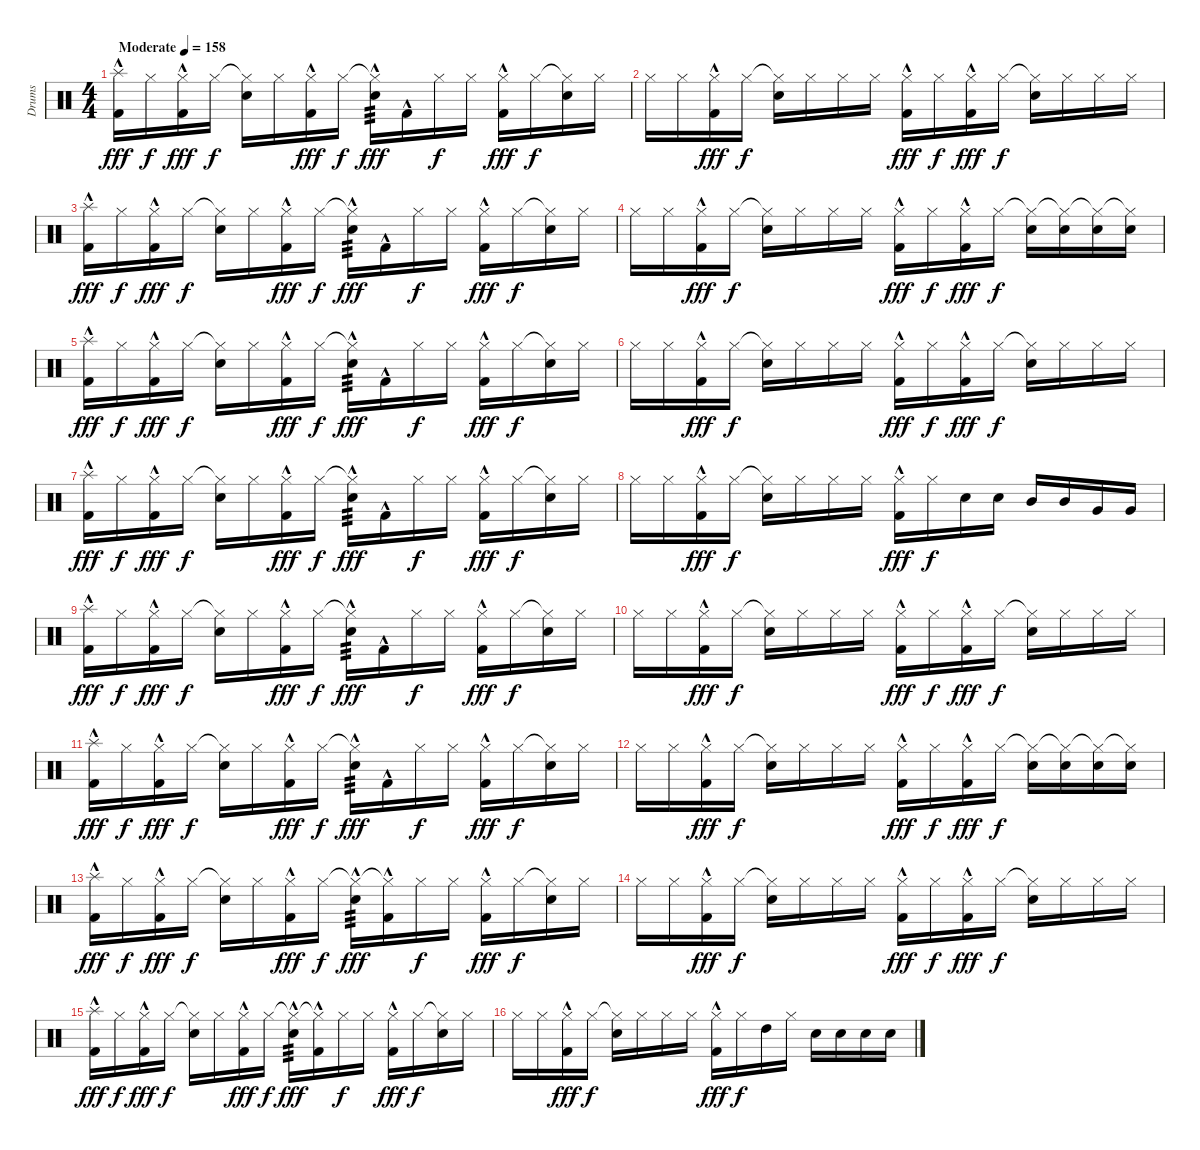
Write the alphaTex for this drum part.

\track ("Drums" "Drums") {instrument percussion}
\staff {score}
\articulation defaults
\ts (4 4)
\tempo (158 "Moderate")
\clef neutral
\ks c
("Splash (hit)" "Kick (hit) 2"{hac}).16{dy fff} "Hi-Hat (closed)".16{dy f} ("Hi-Hat (closed)" "Kick (hit) 2"{hac}).16{dy fff} "Hi-Hat (closed)".16{dy f} ("Hi-Hat (closed)"{t} "Electric Snare (hit)").16 "Hi-Hat (closed)".16 ("Hi-Hat (closed)" "Kick (hit) 2"{hac}).16{dy fff} "Hi-Hat (closed)".16{dy f} ("Hi-Hat (closed)"{t} "Electric Snare (hit)"{hac}).16{tp 3 dy fff} "Kick (hit) 2"{hac}.16 "Hi-Hat (closed)".16{dy f} "Hi-Hat (closed)".16 ("Hi-Hat (closed)" "Kick (hit) 2"{hac}).16{dy fff} "Hi-Hat (closed)".16{dy f} ("Hi-Hat (closed)"{t} "Electric Snare (hit)").16 "Hi-Hat (closed)".16 |
"Hi-Hat (closed)".16 "Hi-Hat (closed)".16 ("Hi-Hat (closed)" "Kick (hit) 2"{hac}).16{dy fff} "Hi-Hat (closed)".16{dy f} ("Hi-Hat (closed)"{t} "Electric Snare (hit)").16 "Hi-Hat (closed)".16 "Hi-Hat (closed)".16 "Hi-Hat (closed)".16 ("Hi-Hat (closed)" "Kick (hit) 2"{hac}).16{dy fff} "Hi-Hat (closed)".16{dy f} ("Hi-Hat (closed)" "Kick (hit) 2"{hac}).16{dy fff} "Hi-Hat (closed)".16{dy f} ("Hi-Hat (closed)"{t} "Electric Snare (hit)").16 "Hi-Hat (closed)".16 "Hi-Hat (closed)".16 "Hi-Hat (closed)".16 |
("Splash (hit)" "Kick (hit) 2"{hac}).16{dy fff} "Hi-Hat (closed)".16{dy f} ("Hi-Hat (closed)" "Kick (hit) 2"{hac}).16{dy fff} "Hi-Hat (closed)".16{dy f} ("Hi-Hat (closed)"{t} "Electric Snare (hit)").16 "Hi-Hat (closed)".16 ("Hi-Hat (closed)" "Kick (hit) 2"{hac}).16{dy fff} "Hi-Hat (closed)".16{dy f} ("Hi-Hat (closed)"{t} "Electric Snare (hit)"{hac}).16{tp 3 dy fff} "Kick (hit) 2"{hac}.16 "Hi-Hat (closed)".16{dy f} "Hi-Hat (closed)".16 ("Hi-Hat (closed)" "Kick (hit) 2"{hac}).16{dy fff} "Hi-Hat (closed)".16{dy f} ("Hi-Hat (closed)"{t} "Electric Snare (hit)").16 "Hi-Hat (closed)".16 |
"Hi-Hat (closed)".16 "Hi-Hat (closed)".16 ("Hi-Hat (closed)" "Kick (hit) 2"{hac}).16{dy fff} "Hi-Hat (closed)".16{dy f} ("Hi-Hat (closed)"{t} "Electric Snare (hit)").16 "Hi-Hat (closed)".16 "Hi-Hat (closed)".16 "Hi-Hat (closed)".16 ("Hi-Hat (closed)" "Kick (hit) 2"{hac}).16{dy fff} "Hi-Hat (closed)".16{dy f} ("Hi-Hat (closed)" "Kick (hit) 2"{hac}).16{dy fff} "Hi-Hat (closed)".16{dy f} ("Hi-Hat (closed)"{t} "Electric Snare (hit)").16 ("Hi-Hat (closed)"{t} "Electric Snare (hit)").16 ("Hi-Hat (closed)"{t} "Electric Snare (hit)").16 ("Hi-Hat (closed)"{t} "Electric Snare (hit)").16 |
("Splash (hit)" "Kick (hit) 2"{hac}).16{dy fff} "Hi-Hat (closed)".16{dy f} ("Hi-Hat (closed)" "Kick (hit) 2"{hac}).16{dy fff} "Hi-Hat (closed)".16{dy f} ("Hi-Hat (closed)"{t} "Electric Snare (hit)").16 "Hi-Hat (closed)".16 ("Hi-Hat (closed)" "Kick (hit) 2"{hac}).16{dy fff} "Hi-Hat (closed)".16{dy f} ("Hi-Hat (closed)"{t} "Electric Snare (hit)"{hac}).16{tp 3 dy fff} "Kick (hit) 2"{hac}.16 "Hi-Hat (closed)".16{dy f} "Hi-Hat (closed)".16 ("Hi-Hat (closed)" "Kick (hit) 2"{hac}).16{dy fff} "Hi-Hat (closed)".16{dy f} ("Hi-Hat (closed)"{t} "Electric Snare (hit)").16 "Hi-Hat (closed)".16 |
"Hi-Hat (closed)".16 "Hi-Hat (closed)".16 ("Hi-Hat (closed)" "Kick (hit) 2"{hac}).16{dy fff} "Hi-Hat (closed)".16{dy f} ("Hi-Hat (closed)"{t} "Electric Snare (hit)").16 "Hi-Hat (closed)".16 "Hi-Hat (closed)".16 "Hi-Hat (closed)".16 ("Hi-Hat (closed)" "Kick (hit) 2"{hac}).16{dy fff} "Hi-Hat (closed)".16{dy f} ("Hi-Hat (closed)" "Kick (hit) 2"{hac}).16{dy fff} "Hi-Hat (closed)".16{dy f} ("Hi-Hat (closed)"{t} "Electric Snare (hit)").16 "Hi-Hat (closed)".16 "Hi-Hat (closed)".16 "Hi-Hat (closed)".16 |
("Splash (hit)" "Kick (hit) 2"{hac}).16{dy fff} "Hi-Hat (closed)".16{dy f} ("Hi-Hat (closed)" "Kick (hit) 2"{hac}).16{dy fff} "Hi-Hat (closed)".16{dy f} ("Hi-Hat (closed)"{t} "Electric Snare (hit)").16 "Hi-Hat (closed)".16 ("Hi-Hat (closed)" "Kick (hit) 2"{hac}).16{dy fff} "Hi-Hat (closed)".16{dy f} ("Hi-Hat (closed)"{t} "Electric Snare (hit)"{hac}).16{tp 3 dy fff} "Kick (hit) 2"{hac}.16 "Hi-Hat (closed)".16{dy f} "Hi-Hat (closed)".16 ("Hi-Hat (closed)" "Kick (hit) 2"{hac}).16{dy fff} "Hi-Hat (closed)".16{dy f} ("Hi-Hat (closed)"{t} "Electric Snare (hit)").16 "Hi-Hat (closed)".16 |
"Hi-Hat (closed)".16 "Hi-Hat (closed)".16 ("Hi-Hat (closed)" "Kick (hit) 2"{hac}).16{dy fff} "Hi-Hat (closed)".16{dy f} ("Hi-Hat (closed)"{t} "Electric Snare (hit)").16 "Hi-Hat (closed)".16 "Hi-Hat (closed)".16 "Hi-Hat (closed)".16 ("Hi-Hat (closed)" "Kick (hit) 2"{hac}).16{dy fff} "Hi-Hat (closed)".16{dy f} "Electric Snare (hit)".16 "Electric Snare (hit)".16 "Mid Tom (hit)".16 "Mid Tom (hit)".16 "Very Low Tom (hit)".16 "Very Low Tom (hit)".16 |
("Splash (hit)" "Kick (hit) 2"{hac}).16{dy fff} "Hi-Hat (closed)".16{dy f} ("Hi-Hat (closed)" "Kick (hit) 2"{hac}).16{dy fff} "Hi-Hat (closed)".16{dy f} ("Hi-Hat (closed)"{t} "Electric Snare (hit)").16 "Hi-Hat (closed)".16 ("Hi-Hat (closed)" "Kick (hit) 2"{hac}).16{dy fff} "Hi-Hat (closed)".16{dy f} ("Hi-Hat (closed)"{t} "Electric Snare (hit)"{hac}).16{tp 3 dy fff} "Kick (hit) 2"{hac}.16 "Hi-Hat (closed)".16{dy f} "Hi-Hat (closed)".16 ("Hi-Hat (closed)" "Kick (hit) 2"{hac}).16{dy fff} "Hi-Hat (closed)".16{dy f} ("Hi-Hat (closed)"{t} "Electric Snare (hit)").16 "Hi-Hat (closed)".16 |
"Hi-Hat (closed)".16 "Hi-Hat (closed)".16 ("Hi-Hat (closed)" "Kick (hit) 2"{hac}).16{dy fff} "Hi-Hat (closed)".16{dy f} ("Hi-Hat (closed)"{t} "Electric Snare (hit)").16 "Hi-Hat (closed)".16 "Hi-Hat (closed)".16 "Hi-Hat (closed)".16 ("Hi-Hat (closed)" "Kick (hit) 2"{hac}).16{dy fff} "Hi-Hat (closed)".16{dy f} ("Hi-Hat (closed)" "Kick (hit) 2"{hac}).16{dy fff} "Hi-Hat (closed)".16{dy f} ("Hi-Hat (closed)"{t} "Electric Snare (hit)").16 "Hi-Hat (closed)".16 "Hi-Hat (closed)".16 "Hi-Hat (closed)".16 |
("Splash (hit)" "Kick (hit) 2"{hac}).16{dy fff} "Hi-Hat (closed)".16{dy f} ("Hi-Hat (closed)" "Kick (hit) 2"{hac}).16{dy fff} "Hi-Hat (closed)".16{dy f} ("Hi-Hat (closed)"{t} "Electric Snare (hit)").16 "Hi-Hat (closed)".16 ("Hi-Hat (closed)" "Kick (hit) 2"{hac}).16{dy fff} "Hi-Hat (closed)".16{dy f} ("Hi-Hat (closed)"{t} "Electric Snare (hit)"{hac}).16{tp 3 dy fff} "Kick (hit) 2"{hac}.16 "Hi-Hat (closed)".16{dy f} "Hi-Hat (closed)".16 ("Hi-Hat (closed)" "Kick (hit) 2"{hac}).16{dy fff} "Hi-Hat (closed)".16{dy f} ("Hi-Hat (closed)"{t} "Electric Snare (hit)").16 "Hi-Hat (closed)".16 |
"Hi-Hat (closed)".16 "Hi-Hat (closed)".16 ("Hi-Hat (closed)" "Kick (hit) 2"{hac}).16{dy fff} "Hi-Hat (closed)".16{dy f} ("Hi-Hat (closed)"{t} "Electric Snare (hit)").16 "Hi-Hat (closed)".16 "Hi-Hat (closed)".16 "Hi-Hat (closed)".16 ("Hi-Hat (closed)" "Kick (hit) 2"{hac}).16{dy fff} "Hi-Hat (closed)".16{dy f} ("Hi-Hat (closed)" "Kick (hit) 2"{hac}).16{dy fff} "Hi-Hat (closed)".16{dy f} ("Hi-Hat (closed)"{t} "Electric Snare (hit)").16 ("Hi-Hat (closed)"{t} "Electric Snare (hit)").16 ("Hi-Hat (closed)"{t} "Electric Snare (hit)").16 ("Hi-Hat (closed)"{t} "Electric Snare (hit)").16 |
("Splash (hit)" "Kick (hit) 2"{hac}).16{dy fff} "Hi-Hat (closed)".16{dy f} ("Hi-Hat (closed)" "Kick (hit) 2"{hac}).16{dy fff} "Hi-Hat (closed)".16{dy f} ("Hi-Hat (closed)"{t} "Electric Snare (hit)").16 "Hi-Hat (closed)".16 ("Hi-Hat (closed)" "Kick (hit) 2"{hac}).16{dy fff} "Hi-Hat (closed)".16{dy f} ("Hi-Hat (closed)"{t} "Electric Snare (hit)"{hac}).16{tp 3 dy fff} ("Hi-Hat (closed)"{t} "Kick (hit) 2"{hac}).16 "Hi-Hat (closed)".16{dy f} "Hi-Hat (closed)".16 ("Hi-Hat (closed)" "Kick (hit) 2"{hac}).16{dy fff} "Hi-Hat (closed)".16{dy f} ("Hi-Hat (closed)"{t} "Electric Snare (hit)").16 "Hi-Hat (closed)".16 |
"Hi-Hat (closed)".16 "Hi-Hat (closed)".16 ("Hi-Hat (closed)" "Kick (hit) 2"{hac}).16{dy fff} "Hi-Hat (closed)".16{dy f} ("Hi-Hat (closed)"{t} "Electric Snare (hit)").16 "Hi-Hat (closed)".16 "Hi-Hat (closed)".16 "Hi-Hat (closed)".16 ("Hi-Hat (closed)" "Kick (hit) 2"{hac}).16{dy fff} "Hi-Hat (closed)".16{dy f} ("Hi-Hat (closed)" "Kick (hit) 2"{hac}).16{dy fff} "Hi-Hat (closed)".16{dy f} ("Hi-Hat (closed)"{t} "Electric Snare (hit)").16 "Hi-Hat (closed)".16 "Hi-Hat (closed)".16 "Hi-Hat (closed)".16 |
("Splash (hit)" "Kick (hit) 2"{hac}).16{dy fff} "Hi-Hat (closed)".16{dy f} ("Hi-Hat (closed)" "Kick (hit) 2"{hac}).16{dy fff} "Hi-Hat (closed)".16{dy f} ("Hi-Hat (closed)"{t} "Electric Snare (hit)").16 "Hi-Hat (closed)".16 ("Hi-Hat (closed)" "Kick (hit) 2"{hac}).16{dy fff} "Hi-Hat (closed)".16{dy f} ("Hi-Hat (closed)"{t} "Electric Snare (hit)"{hac}).16{tp 3 dy fff} ("Hi-Hat (closed)"{t} "Kick (hit) 2"{hac}).16 "Hi-Hat (closed)".16{dy f} "Hi-Hat (closed)".16 ("Hi-Hat (closed)" "Kick (hit) 2"{hac}).16{dy fff} "Hi-Hat (closed)".16{dy f} ("Hi-Hat (closed)"{t} "Electric Snare (hit)").16 "Hi-Hat (closed)".16 |
"Hi-Hat (closed)".16 "Hi-Hat (closed)".16 ("Hi-Hat (closed)" "Kick (hit) 2"{hac}).16{dy fff} "Hi-Hat (closed)".16{dy f} ("Hi-Hat (closed)"{t} "Electric Snare (hit)").16 "Hi-Hat (closed)".16 "Hi-Hat (closed)".16 "Hi-Hat (closed)".16 ("Hi-Hat (closed)" "Kick (hit) 2"{hac}).16{dy fff} "Hi-Hat (closed)".16{dy f} "High Tom (hit)".16 "Hi-Hat (closed)".16 "Electric Snare (hit)".16 "Electric Snare (hit)".16 "Electric Snare (hit)".16 "Electric Snare (hit)".16
